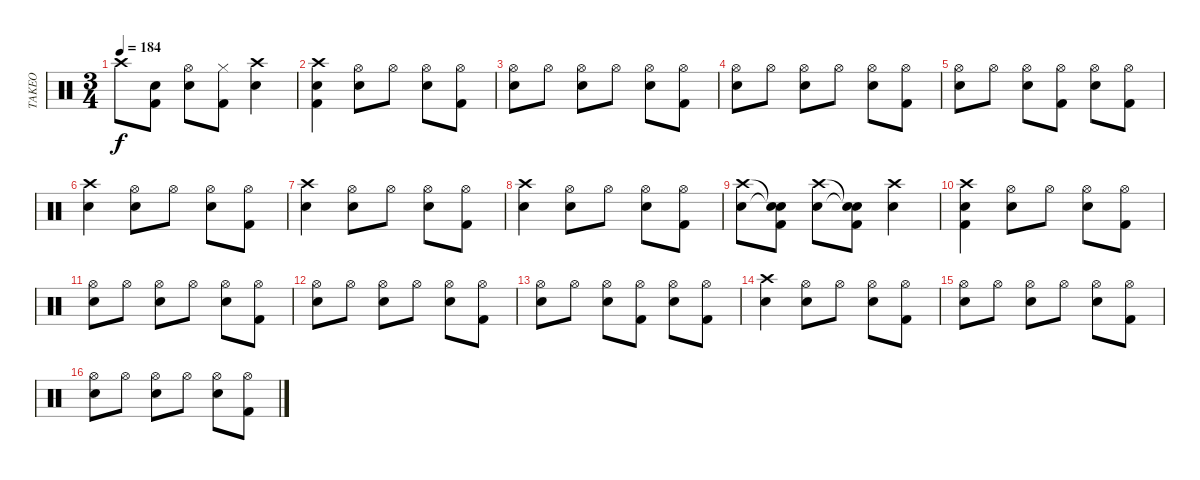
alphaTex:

\track ("TAKEO" "TAKEO") {instrument percussion}
\staff {score}
\articulation defaults
\ts (3 4)
\tempo 184
\clef neutral
\ks c "Crash high (hit)".8{dy f}
("Electric Snare (hit)" "Kick (hit) 2").8 ("Hi-Hat (open)" "Electric Snare (hit)").8 ("Hi-Hat (closed)" "Kick (hit) 2").8 ("Crash high (hit)" "Electric Snare (hit)").4 |
("Crash high (hit)" "Electric Snare (hit)" "Kick (hit) 2").4 ("Hi-Hat (open)" "Electric Snare (hit)").8 "Hi-Hat (open)".8 ("Hi-Hat (open)" "Electric Snare (hit)").8 ("Hi-Hat (open)" "Kick (hit) 2").8 |
("Hi-Hat (open)" "Electric Snare (hit)").8 "Hi-Hat (open)".8 ("Hi-Hat (open)" "Electric Snare (hit)").8 "Hi-Hat (open)".8 ("Hi-Hat (open)" "Electric Snare (hit)").8 ("Hi-Hat (open)" "Kick (hit) 2").8 |
("Hi-Hat (open)" "Electric Snare (hit)").8 "Hi-Hat (open)".8 ("Hi-Hat (open)" "Electric Snare (hit)").8 "Hi-Hat (open)".8 ("Hi-Hat (open)" "Electric Snare (hit)").8 ("Hi-Hat (open)" "Kick (hit) 2").8 |
("Hi-Hat (open)" "Electric Snare (hit)").8 "Hi-Hat (open)".8 ("Hi-Hat (open)" "Electric Snare (hit)").8 ("Hi-Hat (open)" "Kick (hit) 2").8 ("Hi-Hat (open)" "Electric Snare (hit)").8 ("Hi-Hat (open)" "Kick (hit) 2").8 |
("Crash high (hit)" "Electric Snare (hit)").4 ("Hi-Hat (open)" "Electric Snare (hit)").8 "Hi-Hat (open)".8 ("Hi-Hat (open)" "Electric Snare (hit)").8 ("Hi-Hat (open)" "Kick (hit) 2").8 |
("Crash high (hit)" "Electric Snare (hit)").4 ("Hi-Hat (open)" "Electric Snare (hit)").8 "Hi-Hat (open)".8 ("Hi-Hat (open)" "Electric Snare (hit)").8 ("Hi-Hat (open)" "Kick (hit) 2").8 |
("Crash high (hit)" "Electric Snare (hit)").4 ("Hi-Hat (open)" "Electric Snare (hit)").8 "Hi-Hat (open)".8 ("Hi-Hat (open)" "Electric Snare (hit)").8 ("Hi-Hat (open)" "Kick (hit) 2").8 |
("Crash high (hit)" "Electric Snare (hit)").8 ("Snare (hit)"{t} "Snare (hit)"{t} "Kick (hit) 2").8 ("Crash high (hit)" "Electric Snare (hit)").8 ("Snare (hit)"{t} "Snare (hit)"{t} "Kick (hit) 2").8 ("Crash high (hit)" "Electric Snare (hit)").4 |
("Crash high (hit)" "Electric Snare (hit)" "Kick (hit) 2").4 ("Hi-Hat (open)" "Electric Snare (hit)").8 "Hi-Hat (open)".8 ("Hi-Hat (open)" "Electric Snare (hit)").8 ("Hi-Hat (open)" "Kick (hit) 2").8 |
("Hi-Hat (open)" "Electric Snare (hit)").8 "Hi-Hat (open)".8 ("Hi-Hat (open)" "Electric Snare (hit)").8 "Hi-Hat (open)".8 ("Hi-Hat (open)" "Electric Snare (hit)").8 ("Hi-Hat (open)" "Kick (hit) 2").8 |
("Hi-Hat (open)" "Electric Snare (hit)").8 "Hi-Hat (open)".8 ("Hi-Hat (open)" "Electric Snare (hit)").8 "Hi-Hat (open)".8 ("Hi-Hat (open)" "Electric Snare (hit)").8 ("Hi-Hat (open)" "Kick (hit) 2").8 |
("Hi-Hat (open)" "Electric Snare (hit)").8 "Hi-Hat (open)".8 ("Hi-Hat (open)" "Electric Snare (hit)").8 ("Hi-Hat (open)" "Kick (hit) 2").8 ("Hi-Hat (open)" "Electric Snare (hit)").8 ("Hi-Hat (open)" "Kick (hit) 2").8 |
("Crash high (hit)" "Electric Snare (hit)").4 ("Hi-Hat (open)" "Electric Snare (hit)").8 "Hi-Hat (open)".8 ("Hi-Hat (open)" "Electric Snare (hit)").8 ("Hi-Hat (open)" "Kick (hit) 2").8 |
("Hi-Hat (open)" "Electric Snare (hit)").8 "Hi-Hat (open)".8 ("Hi-Hat (open)" "Electric Snare (hit)").8 "Hi-Hat (open)".8 ("Hi-Hat (open)" "Electric Snare (hit)").8 ("Hi-Hat (open)" "Kick (hit) 2").8 |
("Hi-Hat (open)" "Electric Snare (hit)").8 "Hi-Hat (open)".8 ("Hi-Hat (open)" "Electric Snare (hit)").8 "Hi-Hat (open)".8 ("Hi-Hat (open)" "Electric Snare (hit)").8 ("Hi-Hat (open)" "Kick (hit) 2").8
